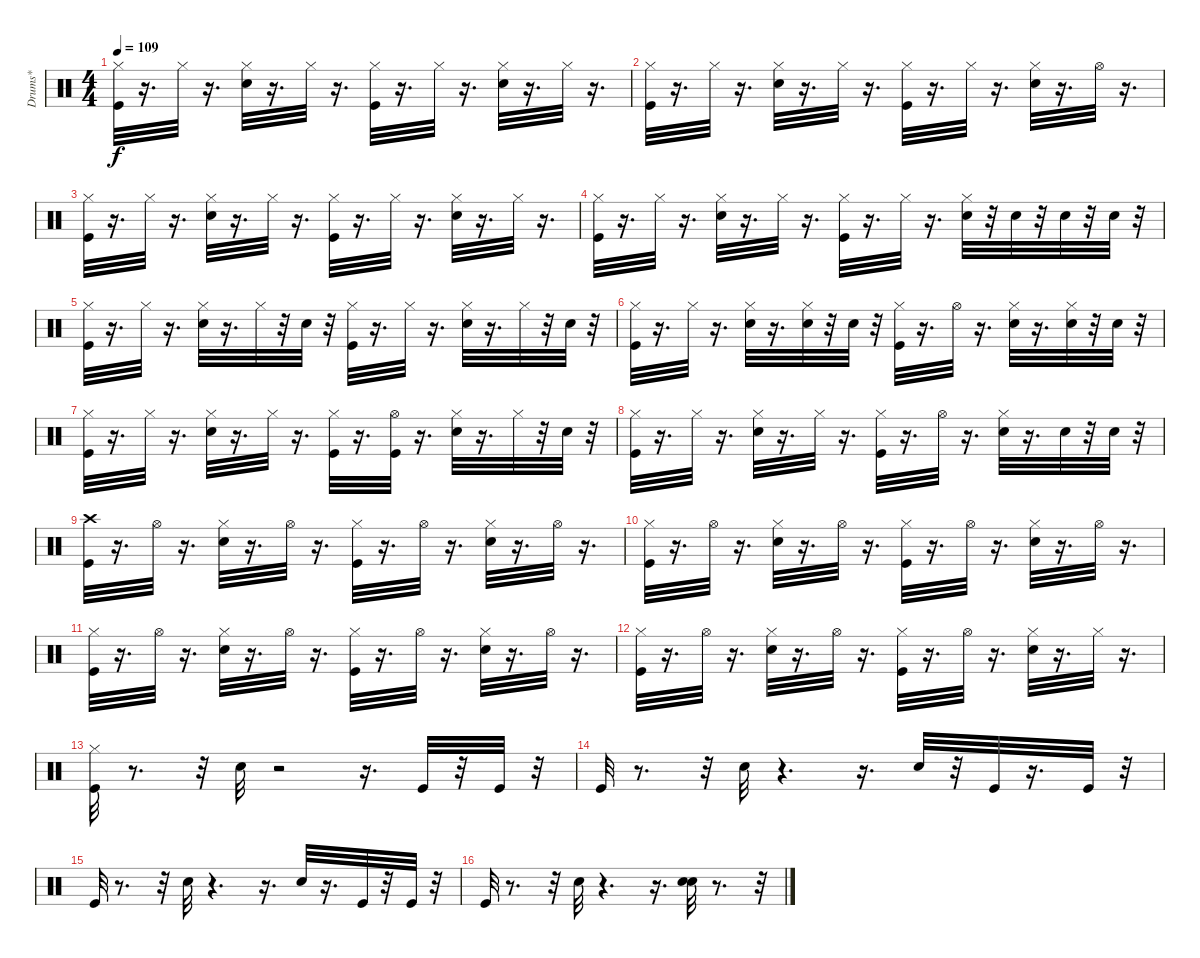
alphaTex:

\track ("Drums*" "Drums*") {instrument percussion}
\staff {score}
\articulation defaults
\ts (4 4)
\tempo 109
\clef neutral
\ks c
("Kick (hit)" "Hi-Hat (closed)").32{dy f} r.16{d} "Hi-Hat (closed)".32 r.16{d} ("Snare (hit) 2" "Hi-Hat (closed)").32 r.16{d} "Hi-Hat (closed)".32 r.16{d} ("Kick (hit)" "Hi-Hat (closed)").32 r.16{d} "Hi-Hat (closed)".32 r.16{d} ("Snare (hit) 2" "Hi-Hat (closed)").32 r.16{d} "Hi-Hat (closed)".32 r.16{d} |
("Kick (hit)" "Hi-Hat (closed)").32 r.16{d} "Hi-Hat (closed)".32 r.16{d} ("Snare (hit) 2" "Hi-Hat (closed)").32 r.16{d} "Hi-Hat (closed)".32 r.16{d} ("Kick (hit)" "Hi-Hat (closed)").32 r.16{d} "Hi-Hat (closed)".32 r.16{d} ("Snare (hit) 2" "Hi-Hat (closed)").32 r.16{d} "Hi-Hat (open)".32 r.16{d} |
("Kick (hit)" "Hi-Hat (closed)").32 r.16{d} "Hi-Hat (closed)".32 r.16{d} ("Snare (hit) 2" "Hi-Hat (closed)").32 r.16{d} "Hi-Hat (closed)".32 r.16{d} ("Kick (hit)" "Hi-Hat (closed)").32 r.16{d} "Hi-Hat (closed)".32 r.16{d} ("Snare (hit) 2" "Hi-Hat (closed)").32 r.16{d} "Hi-Hat (closed)".32 r.16{d} |
("Kick (hit)" "Hi-Hat (closed)").32 r.16{d} "Hi-Hat (closed)".32 r.16{d} ("Snare (hit) 2" "Hi-Hat (closed)").32 r.16{d} "Hi-Hat (closed)".32 r.16{d} ("Kick (hit)" "Hi-Hat (closed)").32 r.16{d} "Hi-Hat (closed)".32 r.16{d} ("Snare (hit) 2" "Hi-Hat (closed)").32 r.32 "Snare (hit) 2".32 r.32 "Snare (hit) 2".32 r.32 "Snare (hit) 2".32 r.32 |
("Hi-Hat (closed)" "Kick (hit)").32 r.16{d} "Hi-Hat (closed)".32 r.16{d} ("Hi-Hat (closed)" "Snare (hit) 2").32 r.16{d} "Hi-Hat (closed)".32 r.32 "Snare (hit) 2".32 r.32 ("Hi-Hat (closed)" "Kick (hit)").32 r.16{d} "Hi-Hat (closed)".32 r.16{d} ("Hi-Hat (closed)" "Snare (hit) 2").32 r.16{d} "Hi-Hat (closed)".32 r.32 "Snare (hit) 2".32 r.32 |
("Hi-Hat (closed)" "Kick (hit)").32 r.16{d} "Hi-Hat (closed)".32 r.16{d} ("Hi-Hat (closed)" "Snare (hit) 2").32 r.16{d} ("Snare (hit) 2" "Hi-Hat (closed)").32 r.32 "Snare (hit) 2".32 r.32 ("Hi-Hat (closed)" "Kick (hit)").32 r.16{d} "Hi-Hat (open)".32 r.16{d} ("Hi-Hat (closed)" "Snare (hit) 2").32 r.16{d} ("Snare (hit) 2" "Hi-Hat (closed)").32 r.32 "Snare (hit) 2".32 r.32 |
("Hi-Hat (closed)" "Kick (hit)").32 r.16{d} "Hi-Hat (closed)".32 r.16{d} ("Hi-Hat (closed)" "Snare (hit) 2").32 r.16{d} "Hi-Hat (closed)".32 r.16{d} ("Hi-Hat (closed)" "Kick (hit)").32 r.16{d} ("Hi-Hat (open)" "Kick (hit)").32 r.16{d} ("Hi-Hat (closed)" "Snare (hit) 2").32 r.16{d} "Hi-Hat (closed)".32 r.32 "Snare (hit) 2".32 r.32 |
("Hi-Hat (closed)" "Kick (hit)").32 r.16{d} "Hi-Hat (closed)".32 r.16{d} ("Hi-Hat (closed)" "Snare (hit) 2").32 r.16{d} "Hi-Hat (closed)".32 r.16{d} ("Hi-Hat (closed)" "Kick (hit)").32 r.16{d} "Hi-Hat (open)".32 r.16{d} ("Hi-Hat (closed)" "Snare (hit) 2").32 r.16{d} "Snare (hit) 2".32 r.32 "Snare (hit) 2".32 r.32 |
("Crash high (hit)" "Kick (hit)").32 r.16{d} "Hi-Hat (open)".32 r.16{d} ("Hi-Hat (closed)" "Snare (hit) 2").32 r.16{d} "Hi-Hat (open)".32 r.16{d} ("Hi-Hat (closed)" "Kick (hit)").32 r.16{d} "Hi-Hat (open)".32 r.16{d} ("Hi-Hat (closed)" "Snare (hit) 2").32 r.16{d} "Hi-Hat (open)".32 r.16{d} |
("Hi-Hat (closed)" "Kick (hit)").32 r.16{d} "Hi-Hat (open)".32 r.16{d} ("Hi-Hat (closed)" "Snare (hit) 2").32 r.16{d} "Hi-Hat (open)".32 r.16{d} ("Hi-Hat (closed)" "Kick (hit)").32 r.16{d} "Hi-Hat (open)".32 r.16{d} ("Hi-Hat (closed)" "Snare (hit) 2").32 r.16{d} "Hi-Hat (open)".32 r.16{d} |
("Hi-Hat (closed)" "Kick (hit)").32 r.16{d} "Hi-Hat (open)".32 r.16{d} ("Hi-Hat (closed)" "Snare (hit) 2").32 r.16{d} "Hi-Hat (open)".32 r.16{d} ("Hi-Hat (closed)" "Kick (hit)").32 r.16{d} "Hi-Hat (open)".32 r.16{d} ("Hi-Hat (closed)" "Snare (hit) 2").32 r.16{d} "Hi-Hat (open)".32 r.16{d} |
("Hi-Hat (closed)" "Kick (hit)").32 r.16{d} "Hi-Hat (open)".32 r.16{d} ("Hi-Hat (closed)" "Snare (hit) 2").32 r.16{d} "Hi-Hat (open)".32 r.16{d} ("Hi-Hat (closed)" "Kick (hit)").32 r.16{d} "Hi-Hat (open)".32 r.16{d} ("Hi-Hat (closed)" "Snare (hit) 2").32 r.16{d} "Hi-Hat (closed)".32 r.16{d} |
("Hi-Hat (closed)" "Kick (hit)").32 r.8{d} r.32 "Snare (hit) 2".32 r.2 r.16{d} "Kick (hit)".32 r.32 "Kick (hit)".32 r.32 |
"Kick (hit)".32 r.8{d} r.32 "Snare (hit) 2".32 r.4{d} r.16{d} "Snare (hit) 2".32 r.32 "Kick (hit)".32 r.16{d} "Kick (hit)".32 r.32 |
"Kick (hit)".32 r.8{d} r.32 "Snare (hit) 2".32 r.4{d} r.16{d} "Snare (hit) 2".32 r.16{d} "Kick (hit)".32 r.32 "Kick (hit)".32 r.32 |
"Kick (hit)".32 r.8{d} r.32 "Snare (hit) 2".32 r.4{d} r.16{d} ("Electric Snare (hit)" "Snare (hit) 2").32 r.8{d} r.32
